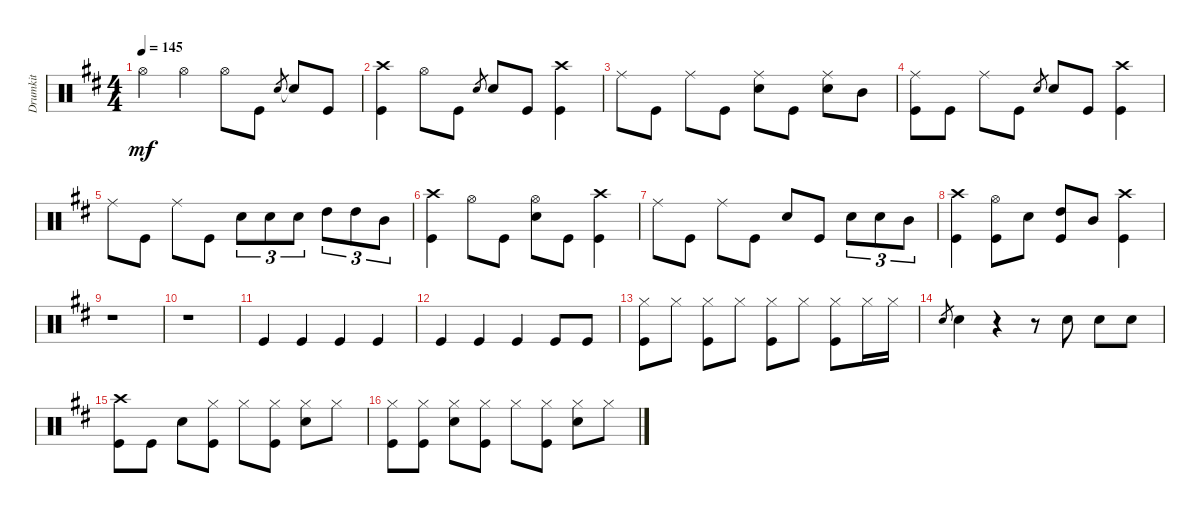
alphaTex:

\track ("Drumkit" "Drumkit") {instrument percussion}
\staff {score}
\articulation defaults
\ts (4 4)
\tempo 145
\clef neutral
\ks d "Hi-Hat (open)".4{dy mf} "Hi-Hat (open)".4 "Hi-Hat (open)".8 "Kick (hit)".8 "Snare (hit)".8{gr} "Snare (hit) 2"{t}.8 "Kick (hit)".8
|
("Kick (hit)" "Crash high (hit)").4 "Hi-Hat (open)".8 "Kick (hit)".8 "Snare (hit)".8{gr} "Snare (hit) 2".8 "Kick (hit)".8 ("Kick (hit)" "Crash high (hit)").4 |
"Ride (middle)".8 "Kick (hit)".8 "Ride (middle)".8 "Kick (hit)".8 ("Snare (hit) 2" "Ride (middle)").8 "Kick (hit)".8 ("Snare (hit) 2" "Ride (middle)").8 "Mid Tom (hit)".8 |
("Kick (hit)" "Ride (middle)").8 "Kick (hit)".8 "Ride (middle)".8 "Kick (hit)".8 "Snare (hit)".8{gr} "Snare (hit) 2".8 "Kick (hit)".8 ("Kick (hit)" "Crash high (hit)").4 |
"Ride (middle)".8 "Kick (hit)".8 "Ride (middle)".8 "Kick (hit)".8 "Snare (hit) 2".8{tu (3 2)} "Snare (hit) 2".8{tu (3 2)} "Snare (hit) 2".8{tu (3 2)} "High Tom (hit)".8{tu (3 2)} "High Tom (hit)".8{tu (3 2)} "Mid Tom (hit)".8{tu (3 2)} |
("Kick (hit)" "Crash high (hit)").4 "Hi-Hat (open)".8 "Kick (hit)".8 ("Hi-Hat (open)" "Snare (hit) 2").8 "Kick (hit)".8 ("Kick (hit)" "Crash high (hit)").4 |
"Ride (middle)".8 "Kick (hit)".8 "Ride (middle)".8 "Kick (hit)".8 "Snare (hit) 2".8 "Kick (hit)".8 "Snare (hit) 2".8{tu (3 2)} "Snare (hit) 2".8{tu (3 2)} "Mid Tom (hit)".8{tu (3 2)} |
("Kick (hit)" "Crash high (hit)").4 ("Kick (hit)" "Hi-Hat (open)").8 "Snare (hit) 2".8 ("High Tom (hit)" "Kick (hit)").8 "Mid Tom (hit)".8 ("Kick (hit)" "Crash high (hit)").4 |
r.1 |
r.1 |
"Kick (hit)".4 "Kick (hit)".4 "Kick (hit)".4 "Kick (hit)".4 |
"Kick (hit)".4 "Kick (hit)".4 "Kick (hit)".4 "Kick (hit)".8 "Kick (hit)".8 |
("Hi-Hat (closed)" "Kick (hit)").8 "Hi-Hat (closed)".8 ("Hi-Hat (closed)" "Kick (hit)").8 "Hi-Hat (closed)".8 ("Hi-Hat (closed)" "Kick (hit)").8 "Hi-Hat (closed)".8 ("Hi-Hat (closed)" "Kick (hit)").8 "Hi-Hat (closed)".16 "Hi-Hat (closed)".16 |
"Snare (hit)".8{gr} "Snare (hit) 2".4 r.4 r.8 "Snare (hit) 2".8 "Snare (hit) 2".8 "Snare (hit) 2".8 |
("Kick (hit)" "Crash high (hit)").8 "Kick (hit)".8 "Snare (hit) 2".8 ("Kick (hit)" "Hi-Hat (closed)").8 "Hi-Hat (closed)".8 ("Hi-Hat (closed)" "Kick (hit)").8 ("Hi-Hat (closed)" "Snare (hit) 2").8 "Hi-Hat (closed)".8 |
("Kick (hit)" "Hi-Hat (closed)").8 ("Kick (hit)" "Hi-Hat (closed)").8 ("Snare (hit) 2" "Hi-Hat (closed)").8 ("Kick (hit)" "Hi-Hat (closed)").8 "Hi-Hat (closed)".8 ("Hi-Hat (closed)" "Kick (hit)").8 ("Hi-Hat (closed)" "Snare (hit) 2").8 "Hi-Hat (closed)".8
